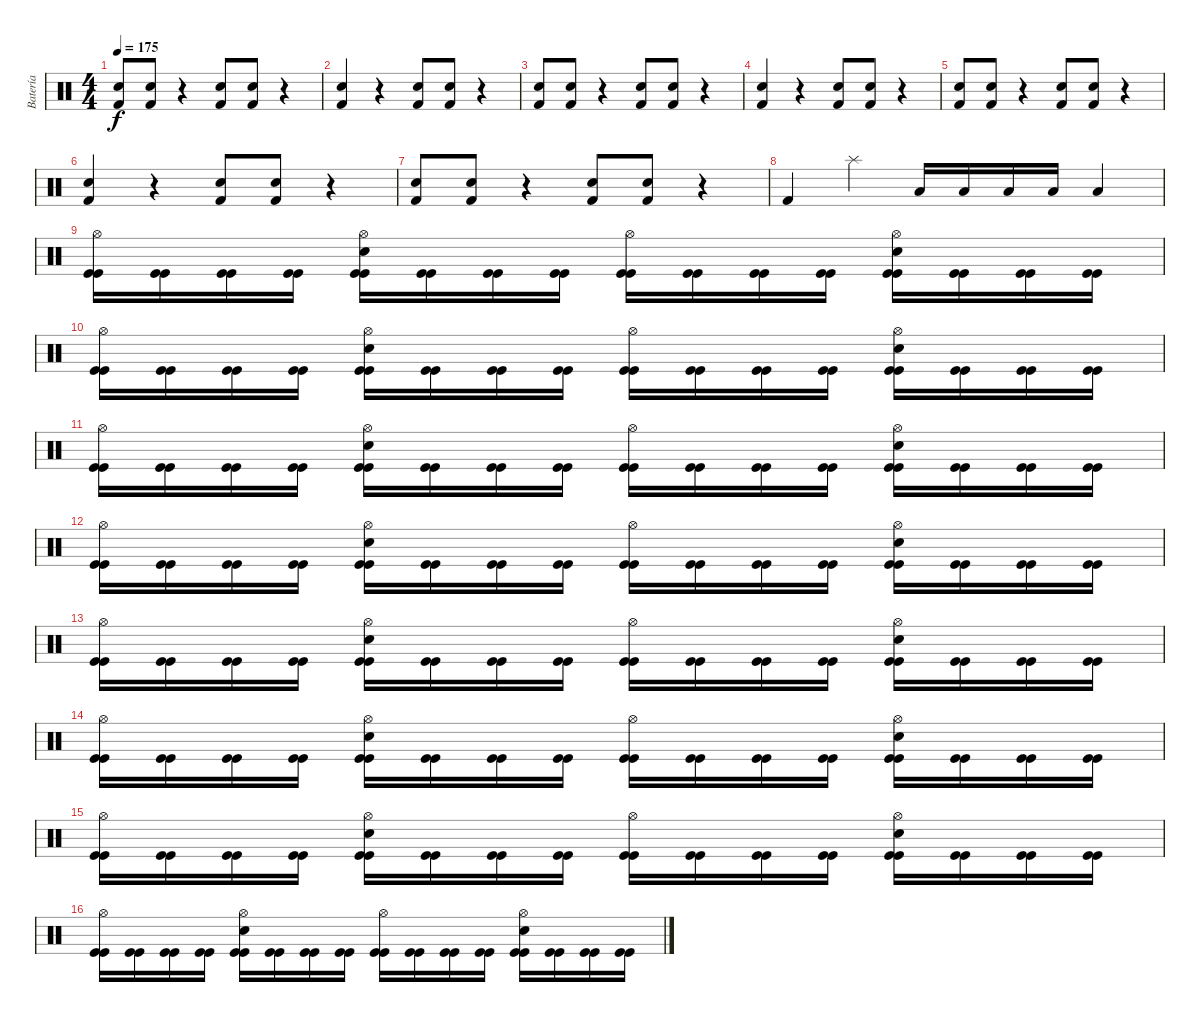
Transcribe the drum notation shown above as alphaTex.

\track ("Batería" "Batería") {instrument percussion}
\staff {score}
\articulation defaults
\ts (4 4)
\tempo 175
\clef neutral
\ks c
("Kick (hit) 2" "Snare (hit) 2").8{dy f} ("Kick (hit) 2" "Snare (hit) 2").8 r.4 ("Kick (hit) 2" "Snare (hit) 2").8 ("Kick (hit) 2" "Snare (hit) 2").8 r.4 |
("Kick (hit) 2" "Snare (hit) 2").4 r.4 ("Kick (hit) 2" "Snare (hit) 2").8 ("Kick (hit) 2" "Snare (hit) 2").8 r.4 |
("Kick (hit) 2" "Snare (hit) 2").8 ("Kick (hit) 2" "Snare (hit) 2").8 r.4 ("Kick (hit) 2" "Snare (hit) 2").8 ("Kick (hit) 2" "Snare (hit) 2").8 r.4 |
("Kick (hit) 2" "Snare (hit) 2").4 r.4 ("Kick (hit) 2" "Snare (hit) 2").8 ("Kick (hit) 2" "Snare (hit) 2").8 r.4 |
("Kick (hit) 2" "Snare (hit) 2").8 ("Kick (hit) 2" "Snare (hit) 2").8 r.4 ("Kick (hit) 2" "Snare (hit) 2").8 ("Kick (hit) 2" "Snare (hit) 2").8 r.4 |
("Kick (hit) 2" "Snare (hit) 2").4 r.4 ("Kick (hit) 2" "Snare (hit) 2").8 ("Kick (hit) 2" "Snare (hit) 2").8 r.4 |
("Kick (hit) 2" "Electric Snare (hit)").8 ("Kick (hit) 2" "Electric Snare (hit)").8 r.4 ("Kick (hit) 2" "Electric Snare (hit)").8 ("Kick (hit) 2" "Electric Snare (hit)").8 r.4 |
"Kick (hit) 2".4 "Splash (hit)".4 "Low Tom (hit)".16 "Low Tom (hit)".16 "Low Tom (hit)".16 "Low Tom (hit)".16 "Low Tom (hit)".4 |
("Kick (hit)" "Kick (hit)" "Hi-Hat (open)").16 ("Kick (hit)" "Kick (hit)").16 ("Kick (hit)" "Kick (hit)").16 ("Kick (hit)" "Kick (hit)").16 ("Kick (hit)" "Kick (hit)" "Snare (hit) 2" "Hi-Hat (open)").16 ("Kick (hit)" "Kick (hit)").16 ("Kick (hit)" "Kick (hit)").16 ("Kick (hit)" "Kick (hit)").16 ("Kick (hit)" "Kick (hit)" "Hi-Hat (open)").16 ("Kick (hit)" "Kick (hit)").16 ("Kick (hit)" "Kick (hit)").16 ("Kick (hit)" "Kick (hit)").16 ("Kick (hit)" "Kick (hit)" "Snare (hit) 2" "Hi-Hat (open)").16 ("Kick (hit)" "Kick (hit)").16 ("Kick (hit)" "Kick (hit)").16 ("Kick (hit)" "Kick (hit)").16 |
("Kick (hit)" "Kick (hit)" "Hi-Hat (open)").16 ("Kick (hit)" "Kick (hit)").16 ("Kick (hit)" "Kick (hit)").16 ("Kick (hit)" "Kick (hit)").16 ("Kick (hit)" "Kick (hit)" "Snare (hit) 2" "Hi-Hat (open)").16 ("Kick (hit)" "Kick (hit)").16 ("Kick (hit)" "Kick (hit)").16 ("Kick (hit)" "Kick (hit)").16 ("Kick (hit)" "Kick (hit)" "Hi-Hat (open)").16 ("Kick (hit)" "Kick (hit)").16 ("Kick (hit)" "Kick (hit)").16 ("Kick (hit)" "Kick (hit)").16 ("Kick (hit)" "Kick (hit)" "Snare (hit) 2" "Hi-Hat (open)").16 ("Kick (hit)" "Kick (hit)").16 ("Kick (hit)" "Kick (hit)").16 ("Kick (hit)" "Kick (hit)").16 |
("Kick (hit)" "Kick (hit)" "Hi-Hat (open)").16 ("Kick (hit)" "Kick (hit)").16 ("Kick (hit)" "Kick (hit)").16 ("Kick (hit)" "Kick (hit)").16 ("Kick (hit)" "Kick (hit)" "Snare (hit) 2" "Hi-Hat (open)").16 ("Kick (hit)" "Kick (hit)").16 ("Kick (hit)" "Kick (hit)").16 ("Kick (hit)" "Kick (hit)").16 ("Kick (hit)" "Kick (hit)" "Hi-Hat (open)").16 ("Kick (hit)" "Kick (hit)").16 ("Kick (hit)" "Kick (hit)").16 ("Kick (hit)" "Kick (hit)").16 ("Kick (hit)" "Kick (hit)" "Snare (hit) 2" "Hi-Hat (open)").16 ("Kick (hit)" "Kick (hit)").16 ("Kick (hit)" "Kick (hit)").16 ("Kick (hit)" "Kick (hit)").16 |
("Kick (hit)" "Kick (hit)" "Hi-Hat (open)").16 ("Kick (hit)" "Kick (hit)").16 ("Kick (hit)" "Kick (hit)").16 ("Kick (hit)" "Kick (hit)").16 ("Kick (hit)" "Kick (hit)" "Snare (hit) 2" "Hi-Hat (open)").16 ("Kick (hit)" "Kick (hit)").16 ("Kick (hit)" "Kick (hit)").16 ("Kick (hit)" "Kick (hit)").16 ("Kick (hit)" "Kick (hit)" "Hi-Hat (open)").16 ("Kick (hit)" "Kick (hit)").16 ("Kick (hit)" "Kick (hit)").16 ("Kick (hit)" "Kick (hit)").16 ("Kick (hit)" "Kick (hit)" "Snare (hit) 2" "Hi-Hat (open)").16 ("Kick (hit)" "Kick (hit)").16 ("Kick (hit)" "Kick (hit)").16 ("Kick (hit)" "Kick (hit)").16 |
("Kick (hit)" "Kick (hit)" "Hi-Hat (open)").16 ("Kick (hit)" "Kick (hit)").16 ("Kick (hit)" "Kick (hit)").16 ("Kick (hit)" "Kick (hit)").16 ("Kick (hit)" "Kick (hit)" "Snare (hit) 2" "Hi-Hat (open)").16 ("Kick (hit)" "Kick (hit)").16 ("Kick (hit)" "Kick (hit)").16 ("Kick (hit)" "Kick (hit)").16 ("Kick (hit)" "Kick (hit)" "Hi-Hat (open)").16 ("Kick (hit)" "Kick (hit)").16 ("Kick (hit)" "Kick (hit)").16 ("Kick (hit)" "Kick (hit)").16 ("Kick (hit)" "Kick (hit)" "Snare (hit) 2" "Hi-Hat (open)").16 ("Kick (hit)" "Kick (hit)").16 ("Kick (hit)" "Kick (hit)").16 ("Kick (hit)" "Kick (hit)").16 |
("Kick (hit)" "Kick (hit)" "Hi-Hat (open)").16 ("Kick (hit)" "Kick (hit)").16 ("Kick (hit)" "Kick (hit)").16 ("Kick (hit)" "Kick (hit)").16 ("Kick (hit)" "Kick (hit)" "Snare (hit) 2" "Hi-Hat (open)").16 ("Kick (hit)" "Kick (hit)").16 ("Kick (hit)" "Kick (hit)").16 ("Kick (hit)" "Kick (hit)").16 ("Kick (hit)" "Kick (hit)" "Hi-Hat (open)").16 ("Kick (hit)" "Kick (hit)").16 ("Kick (hit)" "Kick (hit)").16 ("Kick (hit)" "Kick (hit)").16 ("Kick (hit)" "Kick (hit)" "Snare (hit) 2" "Hi-Hat (open)").16 ("Kick (hit)" "Kick (hit)").16 ("Kick (hit)" "Kick (hit)").16 ("Kick (hit)" "Kick (hit)").16 |
("Kick (hit)" "Kick (hit)" "Hi-Hat (open)").16 ("Kick (hit)" "Kick (hit)").16 ("Kick (hit)" "Kick (hit)").16 ("Kick (hit)" "Kick (hit)").16 ("Kick (hit)" "Kick (hit)" "Snare (hit) 2" "Hi-Hat (open)").16 ("Kick (hit)" "Kick (hit)").16 ("Kick (hit)" "Kick (hit)").16 ("Kick (hit)" "Kick (hit)").16 ("Kick (hit)" "Kick (hit)" "Hi-Hat (open)").16 ("Kick (hit)" "Kick (hit)").16 ("Kick (hit)" "Kick (hit)").16 ("Kick (hit)" "Kick (hit)").16 ("Kick (hit)" "Kick (hit)" "Snare (hit) 2" "Hi-Hat (open)").16 ("Kick (hit)" "Kick (hit)").16 ("Kick (hit)" "Kick (hit)").16 ("Kick (hit)" "Kick (hit)").16 |
("Kick (hit)" "Kick (hit)" "Hi-Hat (open)").16 ("Kick (hit)" "Kick (hit)").16 ("Kick (hit)" "Kick (hit)").16 ("Kick (hit)" "Kick (hit)").16 ("Kick (hit)" "Kick (hit)" "Snare (hit) 2" "Hi-Hat (open)").16 ("Kick (hit)" "Kick (hit)").16 ("Kick (hit)" "Kick (hit)").16 ("Kick (hit)" "Kick (hit)").16 ("Kick (hit)" "Kick (hit)" "Hi-Hat (open)").16 ("Kick (hit)" "Kick (hit)").16 ("Kick (hit)" "Kick (hit)").16 ("Kick (hit)" "Kick (hit)").16 ("Kick (hit)" "Kick (hit)" "Snare (hit) 2" "Hi-Hat (open)").16 ("Kick (hit)" "Kick (hit)").16 ("Kick (hit)" "Kick (hit)").16 ("Kick (hit)" "Kick (hit)").16
